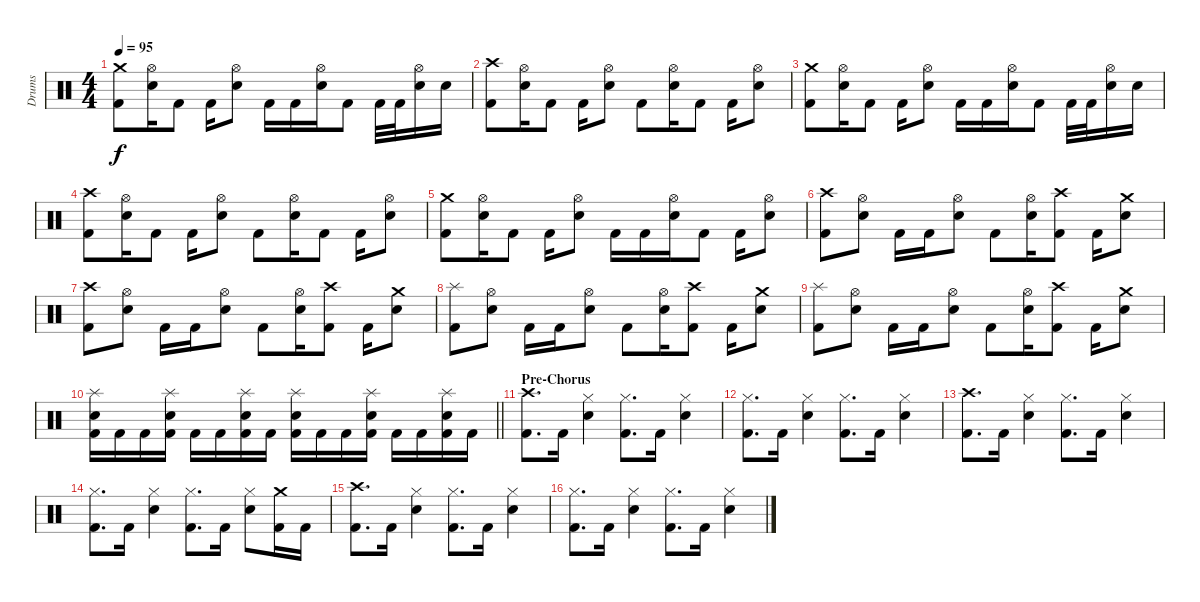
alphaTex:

\track ("Drums" "Drums") {instrument percussion}
\staff {score}
\articulation defaults
\ts (4 4)
\tempo 95
\clef neutral
\ks c
("Crash medium (hit)" "Kick (hit) 2").8{dy f} ("Hi-Hat (open)" "Snare (hit) 2").16 "Kick (hit) 2".8 "Kick (hit) 2".16 ("Hi-Hat (open)" "Snare (hit) 2").8 "Kick (hit) 2".16 "Kick (hit) 2".16 ("Hi-Hat (open)" "Snare (hit) 2").16 "Kick (hit) 2".8 "Kick (hit) 2".32 "Kick (hit) 2".32 ("Hi-Hat (open)" "Snare (hit) 2").16 "Snare (hit) 2".16 |
("Crash high (hit)" "Kick (hit) 2").8 ("Hi-Hat (open)" "Snare (hit) 2").16 "Kick (hit) 2".8 "Kick (hit) 2".16 ("Hi-Hat (open)" "Snare (hit) 2").8 "Kick (hit) 2".8 ("Hi-Hat (open)" "Snare (hit) 2").16 "Kick (hit) 2".8 "Kick (hit) 2".16 ("Hi-Hat (open)" "Snare (hit) 2").8 |
("Crash medium (hit)" "Kick (hit) 2").8 ("Hi-Hat (open)" "Snare (hit) 2").16 "Kick (hit) 2".8 "Kick (hit) 2".16 ("Hi-Hat (open)" "Snare (hit) 2").8 "Kick (hit) 2".16 "Kick (hit) 2".16 ("Hi-Hat (open)" "Snare (hit) 2").16 "Kick (hit) 2".8 "Kick (hit) 2".32 "Kick (hit) 2".32 ("Hi-Hat (open)" "Snare (hit) 2").16 "Snare (hit) 2".16 |
("Crash high (hit)" "Kick (hit) 2").8 ("Hi-Hat (open)" "Snare (hit) 2").16 "Kick (hit) 2".8 "Kick (hit) 2".16 ("Hi-Hat (open)" "Snare (hit) 2").8 "Kick (hit) 2".8 ("Hi-Hat (open)" "Snare (hit) 2").16 "Kick (hit) 2".8 "Kick (hit) 2".16 ("Hi-Hat (open)" "Snare (hit) 2").8 |
("Crash medium (hit)" "Kick (hit) 2").8 ("Hi-Hat (open)" "Snare (hit) 2").16 "Kick (hit) 2".8 "Kick (hit) 2".16 ("Hi-Hat (open)" "Snare (hit) 2").8 "Kick (hit) 2".16 "Kick (hit) 2".16 ("Hi-Hat (open)" "Snare (hit) 2").16 "Kick (hit) 2".8 "Kick (hit) 2".16 ("Hi-Hat (open)" "Snare (hit) 2").8 |
("Crash high (hit)" "Kick (hit) 2").8 ("Hi-Hat (open)" "Snare (hit) 2").8 "Kick (hit) 2".16 "Kick (hit) 2".16 ("Hi-Hat (open)" "Snare (hit) 2").8 "Kick (hit) 2".8 ("Hi-Hat (open)" "Snare (hit) 2").16 ("Crash high (hit)" "Kick (hit) 2").8 "Kick (hit) 2".16 ("Crash medium (hit)" "Snare (hit) 2").8 |
("Crash high (hit)" "Kick (hit) 2").8 ("Hi-Hat (open)" "Snare (hit) 2").8 "Kick (hit) 2".16 "Kick (hit) 2".16 ("Hi-Hat (open)" "Snare (hit) 2").8 "Kick (hit) 2".8 ("Hi-Hat (open)" "Snare (hit) 2").16 ("Crash high (hit)" "Kick (hit) 2").8 "Kick (hit) 2".16 ("Crash medium (hit)" "Snare (hit) 2").8 |
("Splash (hit)" "Kick (hit) 2").8 ("Hi-Hat (open)" "Snare (hit) 2").8 "Kick (hit) 2".16 "Kick (hit) 2".16 ("Hi-Hat (open)" "Snare (hit) 2").8 "Kick (hit) 2".8 ("Hi-Hat (open)" "Snare (hit) 2").16 ("Crash high (hit)" "Kick (hit) 2").8 "Kick (hit) 2".16 ("Crash medium (hit)" "Snare (hit) 2").8 |
("Splash (hit)" "Kick (hit) 2").8 ("Hi-Hat (open)" "Snare (hit) 2").8 "Kick (hit) 2".16 "Kick (hit) 2".16 ("Hi-Hat (open)" "Snare (hit) 2").8 "Kick (hit) 2".8 ("Hi-Hat (open)" "Snare (hit) 2").16 ("Crash high (hit)" "Kick (hit) 2").8 "Kick (hit) 2".16 ("Crash medium (hit)" "Snare (hit) 2").8 |
\barLineRight lightlight
("Splash (hit)" "Snare (hit) 2" "Kick (hit) 2").16 "Kick (hit) 2".16 "Kick (hit) 2".16 ("Splash (hit)" "Snare (hit) 2" "Kick (hit) 2").16 "Kick (hit) 2".16 "Kick (hit) 2".16 ("Splash (hit)" "Snare (hit) 2" "Kick (hit) 2").16 "Kick (hit) 2".16 ("Splash (hit)" "Snare (hit) 2" "Kick (hit) 2").16 "Kick (hit) 2".16 "Kick (hit) 2".16 ("Splash (hit)" "Snare (hit) 2" "Kick (hit) 2").16 "Kick (hit) 2".16 "Kick (hit) 2".16 ("Splash (hit)" "Snare (hit) 2" "Kick (hit) 2").16 "Kick (hit) 2".16 |
\section ("" "Pre-Chorus")
("Crash high (hit)" "Kick (hit) 2").8{d} "Kick (hit) 2".16 ("Hi-Hat (closed)" "Snare (hit) 2").4 ("Hi-Hat (closed)" "Kick (hit) 2").8{d} "Kick (hit) 2".16 ("Hi-Hat (closed)" "Snare (hit) 2").4 |
("Hi-Hat (closed)" "Kick (hit) 2").8{d} "Kick (hit) 2".16 ("Hi-Hat (closed)" "Snare (hit) 2").4 ("Hi-Hat (closed)" "Kick (hit) 2").8{d} "Kick (hit) 2".16 ("Hi-Hat (closed)" "Snare (hit) 2").4 |
("Crash high (hit)" "Kick (hit) 2").8{d} "Kick (hit) 2".16 ("Hi-Hat (closed)" "Snare (hit) 2").4 ("Hi-Hat (closed)" "Kick (hit) 2").8{d} "Kick (hit) 2".16 ("Hi-Hat (closed)" "Snare (hit) 2").4 |
("Hi-Hat (closed)" "Kick (hit) 2").8{d} "Kick (hit) 2".16 ("Hi-Hat (closed)" "Snare (hit) 2").4 ("Hi-Hat (closed)" "Kick (hit) 2").8{d} "Kick (hit) 2".16 ("Hi-Hat (closed)" "Snare (hit) 2").8 ("Crash medium (hit)" "Kick (hit) 2").16 "Kick (hit) 2".16 |
("Crash high (hit)" "Kick (hit) 2").8{d} "Kick (hit) 2".16 ("Hi-Hat (closed)" "Snare (hit) 2").4 ("Hi-Hat (closed)" "Kick (hit) 2").8{d} "Kick (hit) 2".16 ("Hi-Hat (closed)" "Snare (hit) 2").4 |
("Hi-Hat (closed)" "Kick (hit) 2").8{d} "Kick (hit) 2".16 ("Hi-Hat (closed)" "Snare (hit) 2").4 ("Hi-Hat (closed)" "Kick (hit) 2").8{d} "Kick (hit) 2".16 ("Hi-Hat (closed)" "Snare (hit) 2").4
